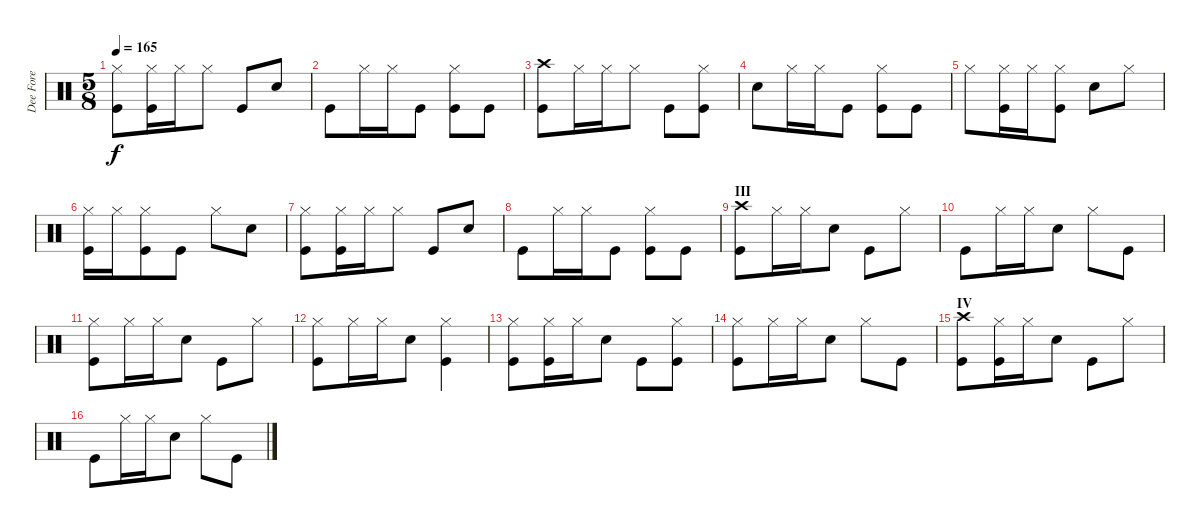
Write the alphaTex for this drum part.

\track ("Dee Fore" "Dee Fore") {instrument percussion}
\staff {score}
\articulation defaults
\ts (5 8)
\tempo 165
\clef neutral
\ks c
("Hi-Hat (closed)" "Kick (hit)").8{dy f} ("Hi-Hat (closed)" "Kick (hit)").16 "Hi-Hat (closed)".16 "Hi-Hat (closed)".8 "Kick (hit)".8 "Electric Snare (hit)".8 |
"Kick (hit)".8 "Hi-Hat (closed)".16 "Hi-Hat (closed)".16 "Kick (hit)".8 ("Hi-Hat (closed)" "Kick (hit)").8 "Kick (hit)".8 |
("Crash high (hit)" "Kick (hit)").8 "Hi-Hat (closed)".16 "Hi-Hat (closed)".16 "Hi-Hat (closed)".8 "Kick (hit)".8 ("Hi-Hat (closed)" "Kick (hit)").8 |
"Electric Snare (hit)".8 "Hi-Hat (closed)".16 "Hi-Hat (closed)".16 "Kick (hit)".8 ("Hi-Hat (closed)" "Kick (hit)").8 "Kick (hit)".8 |
"Hi-Hat (closed)".8 ("Hi-Hat (closed)" "Kick (hit)").16 "Hi-Hat (closed)".16 ("Hi-Hat (closed)" "Kick (hit)").8 "Electric Snare (hit)".8 "Hi-Hat (closed)".8 |
("Hi-Hat (closed)" "Kick (hit)").16 "Hi-Hat (closed)".16 ("Hi-Hat (closed)" "Kick (hit)").8 "Kick (hit)".8 "Hi-Hat (closed)".8 "Electric Snare (hit)".8 |
("Hi-Hat (closed)" "Kick (hit)").8 ("Hi-Hat (closed)" "Kick (hit)").16 "Hi-Hat (closed)".16 "Hi-Hat (closed)".8 "Kick (hit)".8 "Electric Snare (hit)".8 |
"Kick (hit)".8 "Hi-Hat (closed)".16 "Hi-Hat (closed)".16 "Kick (hit)".8 ("Hi-Hat (closed)" "Kick (hit)").8 "Kick (hit)".8 |
\section ("" "III")
("Crash high (hit)" "Kick (hit)").8 "Hi-Hat (closed)".16 "Hi-Hat (closed)".16 "Electric Snare (hit)".8 "Kick (hit)".8 "Hi-Hat (closed)".8 |
"Kick (hit)".8 "Hi-Hat (closed)".16 "Hi-Hat (closed)".16 "Electric Snare (hit)".8 "Hi-Hat (closed)".8 "Kick (hit)".8 |
("Hi-Hat (closed)" "Kick (hit)").8 "Hi-Hat (closed)".16 "Hi-Hat (closed)".16 "Electric Snare (hit)".8 "Kick (hit)".8 "Hi-Hat (closed)".8 |
("Hi-Hat (closed)" "Kick (hit)").8 "Hi-Hat (closed)".16 "Hi-Hat (closed)".16 "Electric Snare (hit)".8 ("Hi-Hat (closed)" "Kick (hit)").4 |
("Hi-Hat (closed)" "Kick (hit)").8 ("Hi-Hat (closed)" "Kick (hit)").16 "Hi-Hat (closed)".16 "Electric Snare (hit)".8 "Kick (hit)".8 ("Hi-Hat (closed)" "Kick (hit)").8 |
("Hi-Hat (closed)" "Kick (hit)").8 "Hi-Hat (closed)".16 "Hi-Hat (closed)".16 "Electric Snare (hit)".8 "Hi-Hat (closed)".8 "Kick (hit)".8 |
\section ("" "IV")
("Crash high (hit)" "Kick (hit)").8 ("Hi-Hat (closed)" "Kick (hit)").16 "Hi-Hat (closed)".16 "Electric Snare (hit)".8 "Kick (hit)".8 "Hi-Hat (closed)".8 |
"Kick (hit)".8 "Hi-Hat (closed)".16 "Hi-Hat (closed)".16 "Electric Snare (hit)".8 "Hi-Hat (closed)".8 "Kick (hit)".8
